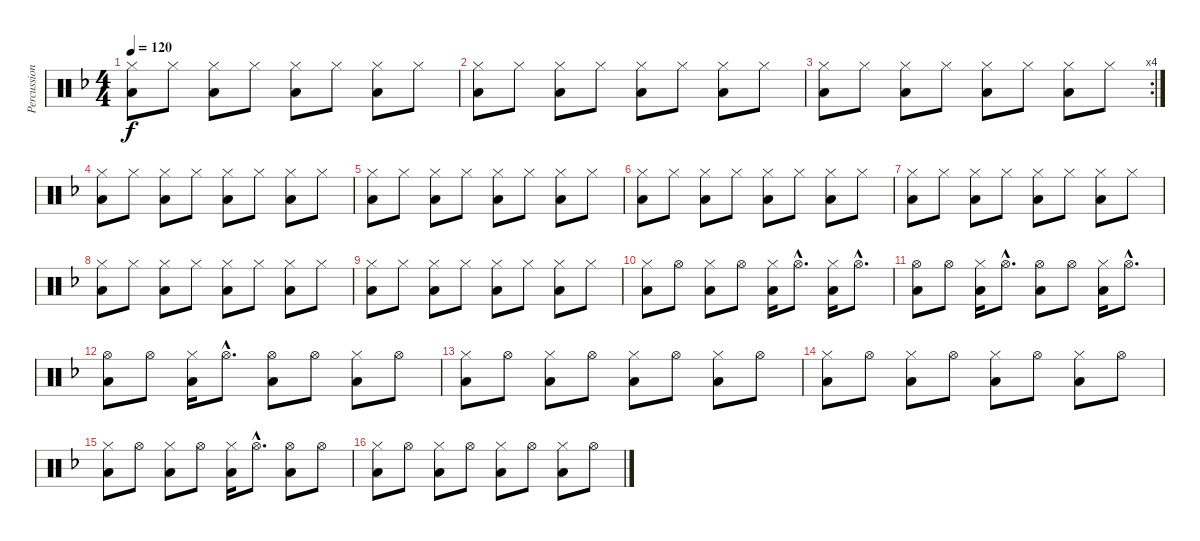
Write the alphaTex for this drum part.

\track ("Percussion" "Percussion") {instrument percussion}
\staff {score}
\articulation defaults
\ts (4 4)
\tempo 120
\clef neutral
\ks f
("Hi-Hat (closed)" "Low Floor Tom (hit)").8{dy f} "Hi-Hat (closed)".8 ("Hi-Hat (closed)" "Low Floor Tom (hit)").8 "Hi-Hat (closed)".8 ("Hi-Hat (closed)" "Low Floor Tom (hit)").8 "Hi-Hat (closed)".8 ("Hi-Hat (closed)" "Low Floor Tom (hit)").8 "Hi-Hat (closed)".8 |
("Hi-Hat (closed)" "Low Floor Tom (hit)").8 "Hi-Hat (closed)".8 ("Hi-Hat (closed)" "Low Floor Tom (hit)").8 "Hi-Hat (closed)".8 ("Hi-Hat (closed)" "Low Floor Tom (hit)").8 "Hi-Hat (closed)".8 ("Hi-Hat (closed)" "Low Floor Tom (hit)").8 "Hi-Hat (closed)".8 |
\rc 4
("Hi-Hat (closed)" "Low Floor Tom (hit)").8 "Hi-Hat (closed)".8 ("Hi-Hat (closed)" "Low Floor Tom (hit)").8 "Hi-Hat (closed)".8 ("Hi-Hat (closed)" "Low Floor Tom (hit)").8 "Hi-Hat (closed)".8 ("Hi-Hat (closed)" "Low Floor Tom (hit)").8 "Hi-Hat (closed)".8 |
("Hi-Hat (closed)" "Low Floor Tom (hit)").8 "Hi-Hat (closed)".8 ("Hi-Hat (closed)" "Low Floor Tom (hit)").8 "Hi-Hat (closed)".8 ("Hi-Hat (closed)" "Low Floor Tom (hit)").8 "Hi-Hat (closed)".8 ("Hi-Hat (closed)" "Low Floor Tom (hit)").8 "Hi-Hat (closed)".8 |
("Hi-Hat (closed)" "Low Floor Tom (hit)").8 "Hi-Hat (closed)".8 ("Hi-Hat (closed)" "Low Floor Tom (hit)").8 "Hi-Hat (closed)".8 ("Hi-Hat (closed)" "Low Floor Tom (hit)").8 "Hi-Hat (closed)".8 ("Hi-Hat (closed)" "Low Floor Tom (hit)").8 "Hi-Hat (closed)".8 |
("Hi-Hat (closed)" "Low Floor Tom (hit)").8 "Hi-Hat (closed)".8 ("Hi-Hat (closed)" "Low Floor Tom (hit)").8 "Hi-Hat (closed)".8 ("Hi-Hat (closed)" "Low Floor Tom (hit)").8 "Hi-Hat (closed)".8 ("Hi-Hat (closed)" "Low Floor Tom (hit)").8 "Hi-Hat (closed)".8 |
("Hi-Hat (closed)" "Low Floor Tom (hit)").8 "Hi-Hat (closed)".8 ("Hi-Hat (closed)" "Low Floor Tom (hit)").8 "Hi-Hat (closed)".8 ("Hi-Hat (closed)" "Low Floor Tom (hit)").8 "Hi-Hat (closed)".8 ("Hi-Hat (closed)" "Low Floor Tom (hit)").8 "Hi-Hat (closed)".8 |
("Hi-Hat (closed)" "Low Floor Tom (hit)").8 "Hi-Hat (closed)".8 ("Hi-Hat (closed)" "Low Floor Tom (hit)").8 "Hi-Hat (closed)".8 ("Hi-Hat (closed)" "Low Floor Tom (hit)").8 "Hi-Hat (closed)".8 ("Hi-Hat (closed)" "Low Floor Tom (hit)").8 "Hi-Hat (closed)".8 |
("Hi-Hat (closed)" "Low Floor Tom (hit)").8 "Hi-Hat (closed)".8 ("Hi-Hat (closed)" "Low Floor Tom (hit)").8 "Hi-Hat (closed)".8 ("Hi-Hat (closed)" "Low Floor Tom (hit)").8 "Hi-Hat (closed)".8 ("Hi-Hat (closed)" "Low Floor Tom (hit)").8 "Hi-Hat (closed)".8 |
("Hi-Hat (closed)" "Low Floor Tom (hit)").8 "Hi-Hat (open)".8 ("Hi-Hat (closed)" "Low Floor Tom (hit)").8 "Hi-Hat (open)".8 ("Hi-Hat (closed)" "Low Floor Tom (hit)").16 "Hi-Hat (open)"{hac}.8{d} ("Hi-Hat (closed)" "Low Floor Tom (hit)").16 "Hi-Hat (open)"{hac}.8{d} |
("Hi-Hat (open)" "Low Floor Tom (hit)").8 "Hi-Hat (open)".8 ("Hi-Hat (closed)" "Low Floor Tom (hit)").16 "Hi-Hat (open)"{hac}.8{d} ("Hi-Hat (open)" "Low Floor Tom (hit)").8 "Hi-Hat (open)".8 ("Hi-Hat (closed)" "Low Floor Tom (hit)").16 "Hi-Hat (open)"{hac}.8{d} |
("Hi-Hat (open)" "Low Floor Tom (hit)").8 "Hi-Hat (open)".8 ("Hi-Hat (closed)" "Low Floor Tom (hit)").16 "Hi-Hat (open)"{hac}.8{d} ("Hi-Hat (open)" "Low Floor Tom (hit)").8 "Hi-Hat (open)".8 ("Hi-Hat (closed)" "Low Floor Tom (hit)").8 "Hi-Hat (open)".8 |
("Hi-Hat (closed)" "Low Floor Tom (hit)").8 "Hi-Hat (open)".8 ("Hi-Hat (closed)" "Low Floor Tom (hit)").8 "Hi-Hat (open)".8 ("Hi-Hat (closed)" "Low Floor Tom (hit)").8 "Hi-Hat (open)".8 ("Hi-Hat (closed)" "Low Floor Tom (hit)").8 "Hi-Hat (open)".8 |
("Hi-Hat (closed)" "Low Floor Tom (hit)").8 "Hi-Hat (open)".8 ("Hi-Hat (closed)" "Low Floor Tom (hit)").8 "Hi-Hat (open)".8 ("Hi-Hat (closed)" "Low Floor Tom (hit)").8 "Hi-Hat (open)".8 ("Hi-Hat (closed)" "Low Floor Tom (hit)").8 "Hi-Hat (open)".8 |
("Hi-Hat (closed)" "Low Floor Tom (hit)").8 "Hi-Hat (open)".8 ("Hi-Hat (closed)" "Low Floor Tom (hit)").8 "Hi-Hat (open)".8 ("Hi-Hat (closed)" "Low Floor Tom (hit)").16 "Hi-Hat (open)"{hac}.8{d} ("Hi-Hat (open)" "Low Floor Tom (hit)").8 "Hi-Hat (open)".8 |
("Hi-Hat (closed)" "Low Floor Tom (hit)").8 "Hi-Hat (open)".8 ("Hi-Hat (closed)" "Low Floor Tom (hit)").8 "Hi-Hat (open)".8 ("Hi-Hat (closed)" "Low Floor Tom (hit)").8 "Hi-Hat (open)".8 ("Hi-Hat (closed)" "Low Floor Tom (hit)").8 "Hi-Hat (open)".8
